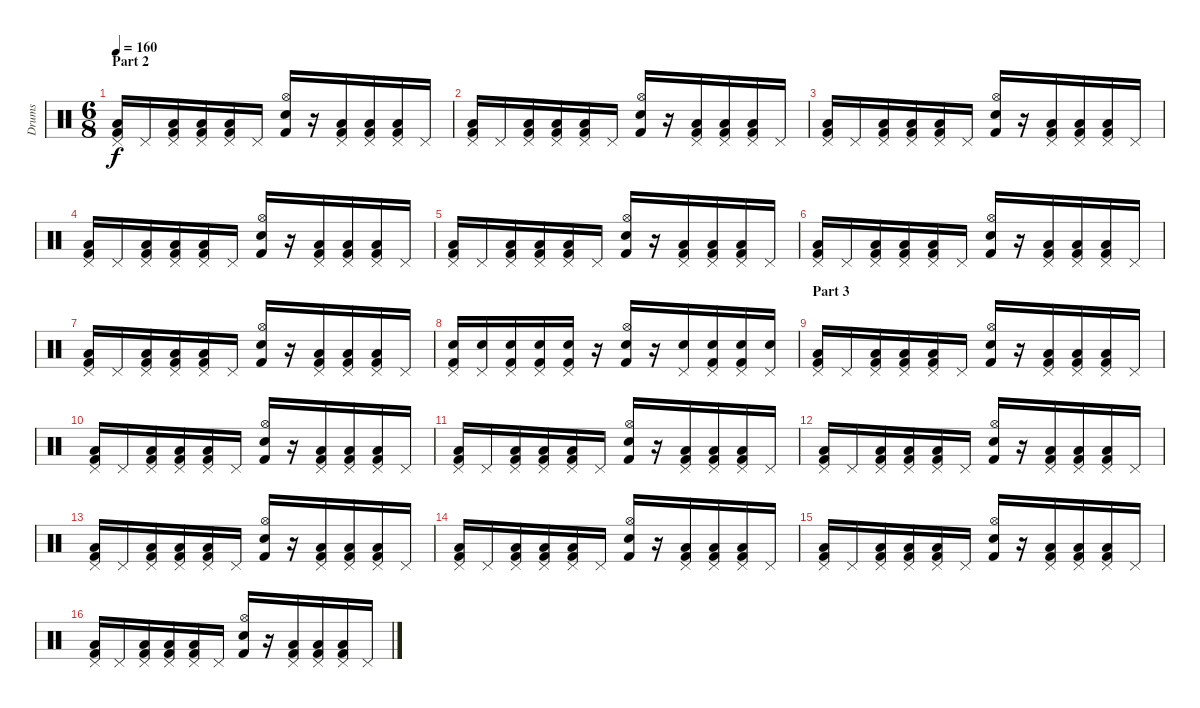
\track ("Drums" "Drums") {instrument percussion}
\staff {score}
\articulation defaults
\ts (6 8)
\section ("" "Part 2")
\tempo 160
\clef neutral
\ks c
("Pedal Hi-Hat (hit)" "Low Floor Tom (hit)" "Kick (hit) 2").16{dy f} "Pedal Hi-Hat (hit)".16 ("Pedal Hi-Hat (hit)" "Low Floor Tom (hit)" "Kick (hit) 2").16 ("Pedal Hi-Hat (hit)" "Low Floor Tom (hit)" "Kick (hit) 2").16 ("Pedal Hi-Hat (hit)" "Low Floor Tom (hit)" "Kick (hit) 2").16 "Pedal Hi-Hat (hit)".16 ("Hi-Hat (open)" "Snare (hit) 2" "Kick (hit) 2").16 r.16 ("Pedal Hi-Hat (hit)" "Low Floor Tom (hit)" "Kick (hit) 2").16 ("Pedal Hi-Hat (hit)" "Low Floor Tom (hit)" "Kick (hit) 2").16 ("Pedal Hi-Hat (hit)" "Low Floor Tom (hit)" "Kick (hit) 2").16 "Pedal Hi-Hat (hit)".16 |
("Pedal Hi-Hat (hit)" "Low Floor Tom (hit)" "Kick (hit) 2").16 "Pedal Hi-Hat (hit)".16 ("Pedal Hi-Hat (hit)" "Low Floor Tom (hit)" "Kick (hit) 2").16 ("Pedal Hi-Hat (hit)" "Low Floor Tom (hit)" "Kick (hit) 2").16 ("Pedal Hi-Hat (hit)" "Low Floor Tom (hit)" "Kick (hit) 2").16 "Pedal Hi-Hat (hit)".16 ("Hi-Hat (open)" "Snare (hit) 2" "Kick (hit) 2").16 r.16 ("Pedal Hi-Hat (hit)" "Low Floor Tom (hit)" "Kick (hit) 2").16 ("Pedal Hi-Hat (hit)" "Low Floor Tom (hit)" "Kick (hit) 2").16 ("Pedal Hi-Hat (hit)" "Low Floor Tom (hit)" "Kick (hit) 2").16 "Pedal Hi-Hat (hit)".16 |
("Pedal Hi-Hat (hit)" "Low Floor Tom (hit)" "Kick (hit) 2").16 "Pedal Hi-Hat (hit)".16 ("Pedal Hi-Hat (hit)" "Low Floor Tom (hit)" "Kick (hit) 2").16 ("Pedal Hi-Hat (hit)" "Low Floor Tom (hit)" "Kick (hit) 2").16 ("Pedal Hi-Hat (hit)" "Low Floor Tom (hit)" "Kick (hit) 2").16 "Pedal Hi-Hat (hit)".16 ("Hi-Hat (open)" "Snare (hit) 2" "Kick (hit) 2").16 r.16 ("Pedal Hi-Hat (hit)" "Low Floor Tom (hit)" "Kick (hit) 2").16 ("Pedal Hi-Hat (hit)" "Low Floor Tom (hit)" "Kick (hit) 2").16 ("Pedal Hi-Hat (hit)" "Low Floor Tom (hit)" "Kick (hit) 2").16 "Pedal Hi-Hat (hit)".16 |
("Pedal Hi-Hat (hit)" "Low Floor Tom (hit)" "Kick (hit) 2").16 "Pedal Hi-Hat (hit)".16 ("Pedal Hi-Hat (hit)" "Low Floor Tom (hit)" "Kick (hit) 2").16 ("Pedal Hi-Hat (hit)" "Low Floor Tom (hit)" "Kick (hit) 2").16 ("Pedal Hi-Hat (hit)" "Low Floor Tom (hit)" "Kick (hit) 2").16 "Pedal Hi-Hat (hit)".16 ("Hi-Hat (open)" "Snare (hit) 2" "Kick (hit) 2").16 r.16 ("Pedal Hi-Hat (hit)" "Low Floor Tom (hit)" "Kick (hit) 2").16 ("Pedal Hi-Hat (hit)" "Low Floor Tom (hit)" "Kick (hit) 2").16 ("Pedal Hi-Hat (hit)" "Low Floor Tom (hit)" "Kick (hit) 2").16 "Pedal Hi-Hat (hit)".16 |
("Pedal Hi-Hat (hit)" "Low Floor Tom (hit)" "Kick (hit) 2").16 "Pedal Hi-Hat (hit)".16 ("Pedal Hi-Hat (hit)" "Low Floor Tom (hit)" "Kick (hit) 2").16 ("Pedal Hi-Hat (hit)" "Low Floor Tom (hit)" "Kick (hit) 2").16 ("Pedal Hi-Hat (hit)" "Low Floor Tom (hit)" "Kick (hit) 2").16 "Pedal Hi-Hat (hit)".16 ("Hi-Hat (open)" "Snare (hit) 2" "Kick (hit) 2").16 r.16 ("Pedal Hi-Hat (hit)" "Low Floor Tom (hit)" "Kick (hit) 2").16 ("Pedal Hi-Hat (hit)" "Low Floor Tom (hit)" "Kick (hit) 2").16 ("Pedal Hi-Hat (hit)" "Low Floor Tom (hit)" "Kick (hit) 2").16 "Pedal Hi-Hat (hit)".16 |
("Pedal Hi-Hat (hit)" "Low Floor Tom (hit)" "Kick (hit) 2").16 "Pedal Hi-Hat (hit)".16 ("Pedal Hi-Hat (hit)" "Low Floor Tom (hit)" "Kick (hit) 2").16 ("Pedal Hi-Hat (hit)" "Low Floor Tom (hit)" "Kick (hit) 2").16 ("Pedal Hi-Hat (hit)" "Low Floor Tom (hit)" "Kick (hit) 2").16 "Pedal Hi-Hat (hit)".16 ("Hi-Hat (open)" "Snare (hit) 2" "Kick (hit) 2").16 r.16 ("Pedal Hi-Hat (hit)" "Low Floor Tom (hit)" "Kick (hit) 2").16 ("Pedal Hi-Hat (hit)" "Low Floor Tom (hit)" "Kick (hit) 2").16 ("Pedal Hi-Hat (hit)" "Low Floor Tom (hit)" "Kick (hit) 2").16 "Pedal Hi-Hat (hit)".16 |
("Pedal Hi-Hat (hit)" "Low Floor Tom (hit)" "Kick (hit) 2").16 "Pedal Hi-Hat (hit)".16 ("Pedal Hi-Hat (hit)" "Low Floor Tom (hit)" "Kick (hit) 2").16 ("Pedal Hi-Hat (hit)" "Low Floor Tom (hit)" "Kick (hit) 2").16 ("Pedal Hi-Hat (hit)" "Low Floor Tom (hit)" "Kick (hit) 2").16 "Pedal Hi-Hat (hit)".16 ("Hi-Hat (open)" "Snare (hit) 2" "Kick (hit) 2").16 r.16 ("Pedal Hi-Hat (hit)" "Low Floor Tom (hit)" "Kick (hit) 2").16 ("Pedal Hi-Hat (hit)" "Low Floor Tom (hit)" "Kick (hit) 2").16 ("Pedal Hi-Hat (hit)" "Low Floor Tom (hit)" "Kick (hit) 2").16 "Pedal Hi-Hat (hit)".16 |
("Pedal Hi-Hat (hit)" "Electric Snare (hit)" "Kick (hit) 2").16 ("Pedal Hi-Hat (hit)" "Electric Snare (hit)").16 ("Pedal Hi-Hat (hit)" "Electric Snare (hit)" "Kick (hit) 2").16 ("Pedal Hi-Hat (hit)" "Electric Snare (hit)" "Kick (hit) 2").16 ("Pedal Hi-Hat (hit)" "Electric Snare (hit)" "Kick (hit) 2").16 r.16 ("Hi-Hat (open)" "Snare (hit) 2" "Kick (hit) 2").16 r.16 ("Pedal Hi-Hat (hit)" "Electric Snare (hit)").16 ("Pedal Hi-Hat (hit)" "Electric Snare (hit)" "Kick (hit) 2").16 ("Pedal Hi-Hat (hit)" "Electric Snare (hit)" "Kick (hit) 2").16 ("Pedal Hi-Hat (hit)" "Electric Snare (hit)").16 |
\section ("" "Part 3")
("Pedal Hi-Hat (hit)" "Low Floor Tom (hit)" "Kick (hit) 2").16 "Pedal Hi-Hat (hit)".16 ("Pedal Hi-Hat (hit)" "Low Floor Tom (hit)" "Kick (hit) 2").16 ("Pedal Hi-Hat (hit)" "Low Floor Tom (hit)" "Kick (hit) 2").16 ("Pedal Hi-Hat (hit)" "Low Floor Tom (hit)" "Kick (hit) 2").16 "Pedal Hi-Hat (hit)".16 ("Hi-Hat (open)" "Snare (hit) 2" "Kick (hit) 2").16 r.16 ("Pedal Hi-Hat (hit)" "Low Floor Tom (hit)" "Kick (hit) 2").16 ("Pedal Hi-Hat (hit)" "Low Floor Tom (hit)" "Kick (hit) 2").16 ("Pedal Hi-Hat (hit)" "Low Floor Tom (hit)" "Kick (hit) 2").16 "Pedal Hi-Hat (hit)".16 |
("Pedal Hi-Hat (hit)" "Low Floor Tom (hit)" "Kick (hit) 2").16 "Pedal Hi-Hat (hit)".16 ("Pedal Hi-Hat (hit)" "Low Floor Tom (hit)" "Kick (hit) 2").16 ("Pedal Hi-Hat (hit)" "Low Floor Tom (hit)" "Kick (hit) 2").16 ("Pedal Hi-Hat (hit)" "Low Floor Tom (hit)" "Kick (hit) 2").16 "Pedal Hi-Hat (hit)".16 ("Hi-Hat (open)" "Snare (hit) 2" "Kick (hit) 2").16 r.16 ("Pedal Hi-Hat (hit)" "Low Floor Tom (hit)" "Kick (hit) 2").16 ("Pedal Hi-Hat (hit)" "Low Floor Tom (hit)" "Kick (hit) 2").16 ("Pedal Hi-Hat (hit)" "Low Floor Tom (hit)" "Kick (hit) 2").16 "Pedal Hi-Hat (hit)".16 |
("Pedal Hi-Hat (hit)" "Low Floor Tom (hit)" "Kick (hit) 2").16 "Pedal Hi-Hat (hit)".16 ("Pedal Hi-Hat (hit)" "Low Floor Tom (hit)" "Kick (hit) 2").16 ("Pedal Hi-Hat (hit)" "Low Floor Tom (hit)" "Kick (hit) 2").16 ("Pedal Hi-Hat (hit)" "Low Floor Tom (hit)" "Kick (hit) 2").16 "Pedal Hi-Hat (hit)".16 ("Hi-Hat (open)" "Snare (hit) 2" "Kick (hit) 2").16 r.16 ("Pedal Hi-Hat (hit)" "Low Floor Tom (hit)" "Kick (hit) 2").16 ("Pedal Hi-Hat (hit)" "Low Floor Tom (hit)" "Kick (hit) 2").16 ("Pedal Hi-Hat (hit)" "Low Floor Tom (hit)" "Kick (hit) 2").16 "Pedal Hi-Hat (hit)".16 |
("Pedal Hi-Hat (hit)" "Low Floor Tom (hit)" "Kick (hit) 2").16 "Pedal Hi-Hat (hit)".16 ("Pedal Hi-Hat (hit)" "Low Floor Tom (hit)" "Kick (hit) 2").16 ("Pedal Hi-Hat (hit)" "Low Floor Tom (hit)" "Kick (hit) 2").16 ("Pedal Hi-Hat (hit)" "Low Floor Tom (hit)" "Kick (hit) 2").16 "Pedal Hi-Hat (hit)".16 ("Hi-Hat (open)" "Snare (hit) 2" "Kick (hit) 2").16 r.16 ("Pedal Hi-Hat (hit)" "Low Floor Tom (hit)" "Kick (hit) 2").16 ("Pedal Hi-Hat (hit)" "Low Floor Tom (hit)" "Kick (hit) 2").16 ("Pedal Hi-Hat (hit)" "Low Floor Tom (hit)" "Kick (hit) 2").16 "Pedal Hi-Hat (hit)".16 |
("Pedal Hi-Hat (hit)" "Low Floor Tom (hit)" "Kick (hit) 2").16 "Pedal Hi-Hat (hit)".16 ("Pedal Hi-Hat (hit)" "Low Floor Tom (hit)" "Kick (hit) 2").16 ("Pedal Hi-Hat (hit)" "Low Floor Tom (hit)" "Kick (hit) 2").16 ("Pedal Hi-Hat (hit)" "Low Floor Tom (hit)" "Kick (hit) 2").16 "Pedal Hi-Hat (hit)".16 ("Hi-Hat (open)" "Snare (hit) 2" "Kick (hit) 2").16 r.16 ("Pedal Hi-Hat (hit)" "Low Floor Tom (hit)" "Kick (hit) 2").16 ("Pedal Hi-Hat (hit)" "Low Floor Tom (hit)" "Kick (hit) 2").16 ("Pedal Hi-Hat (hit)" "Low Floor Tom (hit)" "Kick (hit) 2").16 "Pedal Hi-Hat (hit)".16 |
("Pedal Hi-Hat (hit)" "Low Floor Tom (hit)" "Kick (hit) 2").16 "Pedal Hi-Hat (hit)".16 ("Pedal Hi-Hat (hit)" "Low Floor Tom (hit)" "Kick (hit) 2").16 ("Pedal Hi-Hat (hit)" "Low Floor Tom (hit)" "Kick (hit) 2").16 ("Pedal Hi-Hat (hit)" "Low Floor Tom (hit)" "Kick (hit) 2").16 "Pedal Hi-Hat (hit)".16 ("Hi-Hat (open)" "Snare (hit) 2" "Kick (hit) 2").16 r.16 ("Pedal Hi-Hat (hit)" "Low Floor Tom (hit)" "Kick (hit) 2").16 ("Pedal Hi-Hat (hit)" "Low Floor Tom (hit)" "Kick (hit) 2").16 ("Pedal Hi-Hat (hit)" "Low Floor Tom (hit)" "Kick (hit) 2").16 "Pedal Hi-Hat (hit)".16 |
("Pedal Hi-Hat (hit)" "Low Floor Tom (hit)" "Kick (hit) 2").16 "Pedal Hi-Hat (hit)".16 ("Pedal Hi-Hat (hit)" "Low Floor Tom (hit)" "Kick (hit) 2").16 ("Pedal Hi-Hat (hit)" "Low Floor Tom (hit)" "Kick (hit) 2").16 ("Pedal Hi-Hat (hit)" "Low Floor Tom (hit)" "Kick (hit) 2").16 "Pedal Hi-Hat (hit)".16 ("Hi-Hat (open)" "Snare (hit) 2" "Kick (hit) 2").16 r.16 ("Pedal Hi-Hat (hit)" "Low Floor Tom (hit)" "Kick (hit) 2").16 ("Pedal Hi-Hat (hit)" "Low Floor Tom (hit)" "Kick (hit) 2").16 ("Pedal Hi-Hat (hit)" "Low Floor Tom (hit)" "Kick (hit) 2").16 "Pedal Hi-Hat (hit)".16 |
("Pedal Hi-Hat (hit)" "Low Floor Tom (hit)" "Kick (hit) 2").16 "Pedal Hi-Hat (hit)".16 ("Pedal Hi-Hat (hit)" "Low Floor Tom (hit)" "Kick (hit) 2").16 ("Pedal Hi-Hat (hit)" "Low Floor Tom (hit)" "Kick (hit) 2").16 ("Pedal Hi-Hat (hit)" "Low Floor Tom (hit)" "Kick (hit) 2").16 "Pedal Hi-Hat (hit)".16 ("Hi-Hat (open)" "Snare (hit) 2" "Kick (hit) 2").16 r.16 ("Pedal Hi-Hat (hit)" "Low Floor Tom (hit)" "Kick (hit) 2").16 ("Pedal Hi-Hat (hit)" "Low Floor Tom (hit)" "Kick (hit) 2").16 ("Pedal Hi-Hat (hit)" "Low Floor Tom (hit)" "Kick (hit) 2").16 "Pedal Hi-Hat (hit)".16
